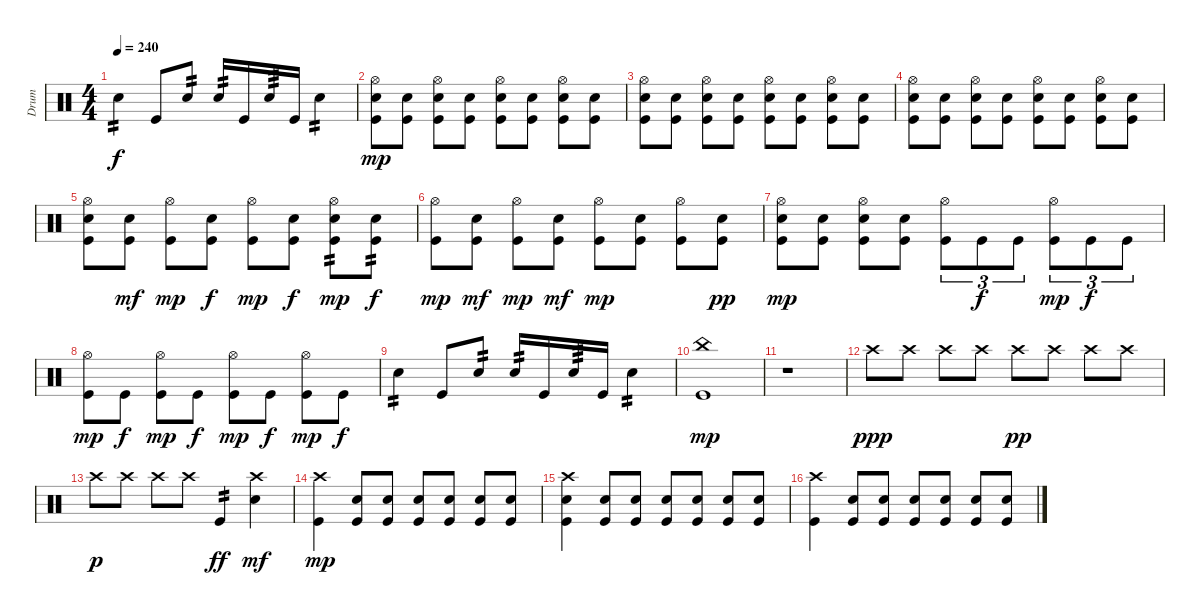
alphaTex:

\track ("Drum" "Drum") {instrument percussion}
\staff {score}
\articulation defaults
\ts (4 4)
\tempo 240
\clef neutral
\ks c "Electric Snare (hit)".4{tp 2 dy f} "Kick (hit)".8 "Electric Snare (hit)".8{tp 2} "Electric Snare (hit)".16{tp 2} "Kick (hit)".16 "Electric Snare (hit)".16{tp 3} "Kick (hit)".16 "Electric Snare (hit)".4{tp 2}
|
("Hi-Hat (open)" "Electric Snare (hit)" "Kick (hit)").8{dy mp} ("Electric Snare (hit)" "Kick (hit)").8 ("Hi-Hat (open)" "Electric Snare (hit)" "Kick (hit)").8 ("Electric Snare (hit)" "Kick (hit)").8 ("Hi-Hat (open)" "Electric Snare (hit)" "Kick (hit)").8 ("Electric Snare (hit)" "Kick (hit)").8 ("Hi-Hat (open)" "Electric Snare (hit)" "Kick (hit)").8 ("Electric Snare (hit)" "Kick (hit)").8 |
("Hi-Hat (open)" "Electric Snare (hit)" "Kick (hit)").8 ("Electric Snare (hit)" "Kick (hit)").8 ("Hi-Hat (open)" "Electric Snare (hit)" "Kick (hit)").8 ("Electric Snare (hit)" "Kick (hit)").8 ("Hi-Hat (open)" "Electric Snare (hit)" "Kick (hit)").8 ("Electric Snare (hit)" "Kick (hit)").8 ("Hi-Hat (open)" "Electric Snare (hit)" "Kick (hit)").8 ("Electric Snare (hit)" "Kick (hit)").8 |
("Hi-Hat (open)" "Electric Snare (hit)" "Kick (hit)").8 ("Electric Snare (hit)" "Kick (hit)").8 ("Hi-Hat (open)" "Electric Snare (hit)" "Kick (hit)").8 ("Electric Snare (hit)" "Kick (hit)").8 ("Hi-Hat (open)" "Electric Snare (hit)" "Kick (hit)").8 ("Electric Snare (hit)" "Kick (hit)").8 ("Hi-Hat (open)" "Electric Snare (hit)" "Kick (hit)").8 ("Electric Snare (hit)" "Kick (hit)").8 |
("Hi-Hat (open)" "Electric Snare (hit)" "Kick (hit)").8 ("Electric Snare (hit)" "Kick (hit)").8{dy mf} ("Hi-Hat (open)" "Kick (hit)").8{dy mp} ("Electric Snare (hit)" "Kick (hit)").8{dy f} ("Hi-Hat (open)" "Kick (hit)").8{dy mp} ("Electric Snare (hit)" "Kick (hit)").8{dy f} ("Hi-Hat (open)" "Electric Snare (hit)" "Kick (hit)").8{tp 2 dy mp} ("Electric Snare (hit)" "Kick (hit)").8{tp 2 dy f} |
("Hi-Hat (open)" "Kick (hit)").8{dy mp} ("Electric Snare (hit)" "Kick (hit)").8{dy mf} ("Hi-Hat (open)" "Kick (hit)").8{dy mp} ("Electric Snare (hit)" "Kick (hit)").8{dy mf} ("Hi-Hat (open)" "Kick (hit)").8{dy mp} ("Electric Snare (hit)" "Kick (hit)").8 ("Hi-Hat (open)" "Kick (hit)").8 ("Electric Snare (hit)" "Kick (hit)").8{dy pp} |
("Hi-Hat (open)" "Electric Snare (hit)" "Kick (hit)").8{dy mp} ("Electric Snare (hit)" "Kick (hit)").8 ("Hi-Hat (open)" "Electric Snare (hit)" "Kick (hit)").8 ("Electric Snare (hit)" "Kick (hit)").8 ("Hi-Hat (open)" "Kick (hit)").8{tu (3 2)} "Kick (hit)".8{tu (3 2) dy f} "Kick (hit)".8{tu (3 2)} ("Hi-Hat (open)" "Kick (hit)").8{tu (3 2) dy mp} "Kick (hit)".8{tu (3 2) dy f} "Kick (hit)".8{tu (3 2)} |
("Hi-Hat (open)" "Kick (hit)").8{dy mp} "Kick (hit)".8{dy f} ("Hi-Hat (open)" "Kick (hit)").8{dy mp} "Kick (hit)".8{dy f} ("Hi-Hat (open)" "Kick (hit)").8{dy mp} "Kick (hit)".8{dy f} ("Hi-Hat (open)" "Kick (hit)").8{dy mp} "Kick (hit)".8{dy f} |
"Electric Snare (hit)".4{tp 2} "Kick (hit)".8 "Electric Snare (hit)".8{tp 2} "Electric Snare (hit)".16{tp 2} "Kick (hit)".16 "Electric Snare (hit)".16{tp 3} "Kick (hit)".16 "Electric Snare (hit)".4{tp 2} |
("China (hit)" "Kick (hit)").1{dy mp} |
r.1 |
"Crash high (hit)".8{dy ppp} "Crash high (hit)".8 "Crash high (hit)".8 "Crash high (hit)".8 "Crash high (hit)".8{dy pp} "Crash high (hit)".8 "Crash high (hit)".8 "Crash high (hit)".8 |
"Crash high (hit)".8{dy p} "Crash high (hit)".8 "Crash high (hit)".8 "Crash high (hit)".8 "Kick (hit)".4{tp 2 dy ff} ("Crash high (hit)" "Electric Snare (hit)").4{dy mf} |
("Crash high (hit)" "Kick (hit)").4{dy mp} ("Electric Snare (hit)" "Kick (hit)").8 ("Electric Snare (hit)" "Kick (hit)").8 ("Electric Snare (hit)" "Kick (hit)").8 ("Electric Snare (hit)" "Kick (hit)").8 ("Electric Snare (hit)" "Kick (hit)").8 ("Electric Snare (hit)" "Kick (hit)").8 |
("Crash high (hit)" "Electric Snare (hit)" "Kick (hit)").4 ("Electric Snare (hit)" "Kick (hit)").8 ("Electric Snare (hit)" "Kick (hit)").8 ("Electric Snare (hit)" "Kick (hit)").8 ("Electric Snare (hit)" "Kick (hit)").8 ("Electric Snare (hit)" "Kick (hit)").8 ("Electric Snare (hit)" "Kick (hit)").8 |
("Crash high (hit)" "Kick (hit)").4 ("Electric Snare (hit)" "Kick (hit)").8 ("Electric Snare (hit)" "Kick (hit)").8 ("Electric Snare (hit)" "Kick (hit)").8 ("Electric Snare (hit)" "Kick (hit)").8 ("Electric Snare (hit)" "Kick (hit)").8 ("Electric Snare (hit)" "Kick (hit)").8
